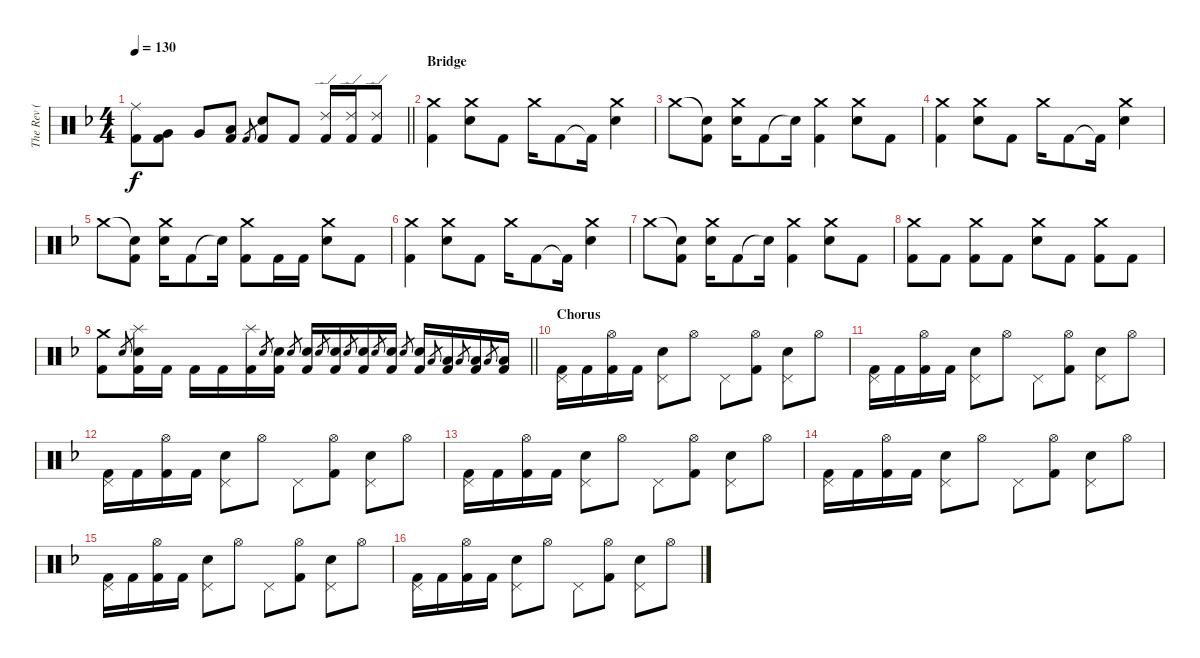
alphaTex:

\track ("The Rev ( Drums )" "The Rev ( ") {instrument percussion}
\staff {score}
\articulation defaults
\ts (4 4)
\tempo 130
\clef neutral
\barLineRight lightlight
\ks f
("Ride (middle)" "Kick (hit) 2").8{dy f} ("Very Low Tom (hit)" "Kick (hit) 2").8 "Very Low Tom (hit)".8 ("Low Floor Tom (hit)" "Kick (hit) 2").8 "Kick (hit) 2".8{gr} ("Snare (hit) 2" "Kick (hit) 2").8 "Kick (hit) 2".8 ("Ride (edge) 2" "Kick (hit) 2").16 ("Ride (edge) 2" "Kick (hit) 2").16 ("Ride (edge) 2" "Kick (hit) 2").8 |
\section ("" "Bridge")
("Crash medium (hit)" "Kick (hit) 2").4 ("Crash medium (hit)" "Snare (hit) 2").8 "Kick (hit) 2".8 "Crash medium (hit)".16 "Kick (hit) 2".8 "Kick (hit) 2"{t}.16 ("Crash medium (hit)" "Snare (hit) 2").4 |
"Crash medium (hit)".8 ("Snare (hit)"{t} "Kick (hit) 2").8 ("Crash medium (hit)" "Snare (hit) 2").16 "Kick (hit) 2".8 "Snare (hit)"{t}.16 ("Crash medium (hit)" "Kick (hit) 2").4 ("Crash medium (hit)" "Snare (hit) 2").8 "Kick (hit) 2".8 |
("Crash medium (hit)" "Kick (hit) 2").4 ("Crash medium (hit)" "Snare (hit) 2").8 "Kick (hit) 2".8 "Crash medium (hit)".16 "Kick (hit) 2".8 "Kick (hit) 2"{t}.16 ("Crash medium (hit)" "Snare (hit) 2").4 |
"Crash medium (hit)".8 ("Snare (hit)"{t} "Kick (hit) 2").8 ("Crash medium (hit)" "Snare (hit) 2").16 "Kick (hit) 2".8 "Snare (hit)"{t}.16 ("Crash medium (hit)" "Kick (hit) 2").8 "Kick (hit) 2".16 "Kick (hit) 2".16 ("Crash medium (hit)" "Snare (hit) 2").8 "Kick (hit) 2".8 |
("Crash medium (hit)" "Kick (hit) 2").4 ("Crash medium (hit)" "Snare (hit) 2").8 "Kick (hit) 2".8 "Crash medium (hit)".16 "Kick (hit) 2".8 "Kick (hit) 2"{t}.16 ("Crash medium (hit)" "Snare (hit) 2").4 |
"Crash medium (hit)".8 ("Snare (hit)"{t} "Kick (hit) 2").8 ("Crash medium (hit)" "Snare (hit) 2").16 "Kick (hit) 2".8 "Snare (hit)"{t}.16 ("Crash medium (hit)" "Kick (hit) 2").4 ("Crash medium (hit)" "Snare (hit) 2").8 "Kick (hit) 2".8 |
("Crash medium (hit)" "Kick (hit) 2").8 "Kick (hit) 2".8 ("Crash medium (hit)" "Kick (hit) 2").8 "Kick (hit) 2".8 ("Crash medium (hit)" "Snare (hit) 2").8 "Kick (hit) 2".8 ("Crash medium (hit)" "Kick (hit) 2").8 "Kick (hit) 2".8 |
\barLineRight lightlight
("Crash medium (hit)" "Kick (hit) 2").8 "Snare (hit) 2".8{gr} ("Splash (hit)" "Snare (hit) 2" "Kick (hit) 2").16 "Kick (hit) 2".16 "Kick (hit) 2".16 "Kick (hit) 2".16 ("Splash (hit)" "Kick (hit) 2").16 "Snare (hit) 2".8{gr} ("Snare (hit) 2" "Kick (hit) 2").16 "Snare (hit) 2".8{gr} ("Snare (hit) 2" "Kick (hit) 2").16 "Snare (hit) 2".8{gr} ("Snare (hit) 2" "Kick (hit) 2").16 "Snare (hit) 2".8{gr} ("Snare (hit) 2" "Kick (hit) 2").16 "Snare (hit) 2".8{gr} ("Snare (hit) 2" "Kick (hit) 2").16 "Snare (hit) 2".8{gr} ("Snare (hit) 2" "Kick (hit) 2").16 "Low Tom (hit)".8{gr} ("Low Tom (hit)" "Kick (hit) 2").16 "Low Tom (hit)".8{gr} ("Low Tom (hit)" "Kick (hit) 2").16 "Low Tom (hit)".8{gr} ("Low Tom (hit)" "Kick (hit) 2").16 |
\section ("" "Chorus")
("Pedal Hi-Hat (hit)" "Kick (hit) 2").16 "Kick (hit) 2".16 ("Hi-Hat (open)" "Kick (hit) 2").16 "Kick (hit) 2".16 ("Pedal Hi-Hat (hit)" "Snare (hit) 2").8 "Hi-Hat (open)".8 "Pedal Hi-Hat (hit)".8 ("Hi-Hat (open)" "Kick (hit) 2").8 ("Pedal Hi-Hat (hit)" "Snare (hit) 2").8 "Hi-Hat (open)".8 |
("Pedal Hi-Hat (hit)" "Kick (hit) 2").16 "Kick (hit) 2".16 ("Hi-Hat (open)" "Kick (hit) 2").16 "Kick (hit) 2".16 ("Pedal Hi-Hat (hit)" "Snare (hit) 2").8 "Hi-Hat (open)".8 "Pedal Hi-Hat (hit)".8 ("Hi-Hat (open)" "Kick (hit) 2").8 ("Pedal Hi-Hat (hit)" "Snare (hit) 2").8 "Hi-Hat (open)".8 |
("Pedal Hi-Hat (hit)" "Kick (hit) 2").16 "Kick (hit) 2".16 ("Hi-Hat (open)" "Kick (hit) 2").16 "Kick (hit) 2".16 ("Pedal Hi-Hat (hit)" "Snare (hit) 2").8 "Hi-Hat (open)".8 "Pedal Hi-Hat (hit)".8 ("Hi-Hat (open)" "Kick (hit) 2").8 ("Pedal Hi-Hat (hit)" "Snare (hit) 2").8 "Hi-Hat (open)".8 |
("Pedal Hi-Hat (hit)" "Kick (hit) 2").16 "Kick (hit) 2".16 ("Hi-Hat (open)" "Kick (hit) 2").16 "Kick (hit) 2".16 ("Pedal Hi-Hat (hit)" "Snare (hit) 2").8 "Hi-Hat (open)".8 "Pedal Hi-Hat (hit)".8 ("Hi-Hat (open)" "Kick (hit) 2").8 ("Pedal Hi-Hat (hit)" "Snare (hit) 2").8 "Hi-Hat (open)".8 |
("Pedal Hi-Hat (hit)" "Kick (hit) 2").16 "Kick (hit) 2".16 ("Hi-Hat (open)" "Kick (hit) 2").16 "Kick (hit) 2".16 ("Pedal Hi-Hat (hit)" "Snare (hit) 2").8 "Hi-Hat (open)".8 "Pedal Hi-Hat (hit)".8 ("Hi-Hat (open)" "Kick (hit) 2").8 ("Pedal Hi-Hat (hit)" "Snare (hit) 2").8 "Hi-Hat (open)".8 |
("Pedal Hi-Hat (hit)" "Kick (hit) 2").16 "Kick (hit) 2".16 ("Hi-Hat (open)" "Kick (hit) 2").16 "Kick (hit) 2".16 ("Pedal Hi-Hat (hit)" "Snare (hit) 2").8 "Hi-Hat (open)".8 "Pedal Hi-Hat (hit)".8 ("Hi-Hat (open)" "Kick (hit) 2").8 ("Pedal Hi-Hat (hit)" "Snare (hit) 2").8 "Hi-Hat (open)".8 |
("Pedal Hi-Hat (hit)" "Kick (hit) 2").16 "Kick (hit) 2".16 ("Hi-Hat (open)" "Kick (hit) 2").16 "Kick (hit) 2".16 ("Pedal Hi-Hat (hit)" "Snare (hit) 2").8 "Hi-Hat (open)".8 "Pedal Hi-Hat (hit)".8 ("Hi-Hat (open)" "Kick (hit) 2").8 ("Pedal Hi-Hat (hit)" "Snare (hit) 2").8 "Hi-Hat (open)".8
